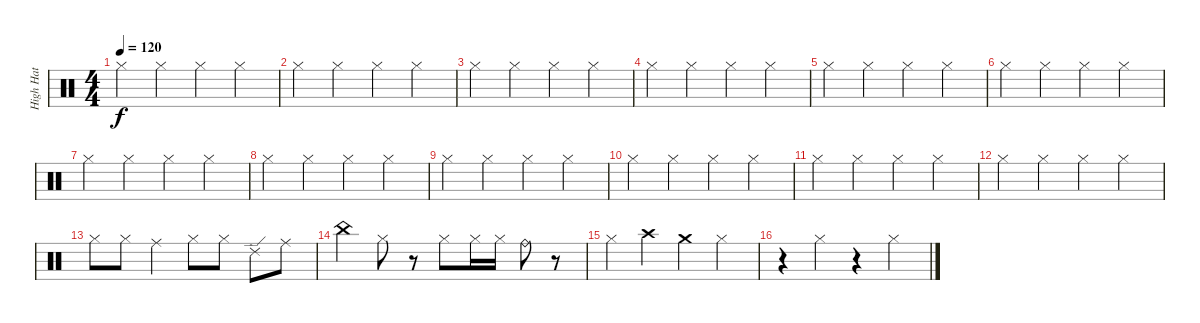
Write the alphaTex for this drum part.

\track ("High Hat" "High Hat") {instrument percussion}
\staff {score}
\articulation defaults
\ts (4 4)
\tempo 120
\clef neutral
\ks c "Hi-Hat (closed)".4{dy f} "Hi-Hat (closed)".4 "Hi-Hat (closed)".4 "Hi-Hat (closed)".4
|
"Hi-Hat (closed)".4 "Hi-Hat (closed)".4 "Hi-Hat (closed)".4 "Hi-Hat (closed)".4 |
"Hi-Hat (closed)".4 "Hi-Hat (closed)".4 "Hi-Hat (closed)".4 "Hi-Hat (closed)".4 |
"Hi-Hat (closed)".4 "Hi-Hat (closed)".4 "Hi-Hat (closed)".4 "Hi-Hat (closed)".4 |
"Hi-Hat (closed)".4 "Hi-Hat (closed)".4 "Hi-Hat (closed)".4 "Hi-Hat (closed)".4 |
"Hi-Hat (closed)".4 "Hi-Hat (closed)".4 "Hi-Hat (closed)".4 "Hi-Hat (closed)".4 |
"Hi-Hat (closed)".4 "Hi-Hat (closed)".4 "Hi-Hat (closed)".4 "Hi-Hat (closed)".4 |
"Hi-Hat (closed)".4 "Hi-Hat (closed)".4 "Hi-Hat (closed)".4 "Hi-Hat (closed)".4 |
"Hi-Hat (closed)".4 "Hi-Hat (closed)".4 "Hi-Hat (closed)".4 "Hi-Hat (closed)".4 |
"Hi-Hat (closed)".4 "Hi-Hat (closed)".4 "Hi-Hat (closed)".4 "Hi-Hat (closed)".4 |
"Hi-Hat (closed)".4 "Hi-Hat (closed)".4 "Hi-Hat (closed)".4 "Hi-Hat (closed)".4 |
"Hi-Hat (closed)".4 "Hi-Hat (closed)".4 "Hi-Hat (closed)".4 "Hi-Hat (closed)".4 |
"Hi-Hat (closed)".8 "Hi-Hat (closed)".8 "Ride (middle)".4 "Hi-Hat (closed)".8 "Hi-Hat (closed)".8 "Ride (edge) 2".8 "Ride (middle)".8 |
"China (hit)".4 "Hi-Hat (closed)".8 r.8 "Hi-Hat (closed)".8 "Hi-Hat (closed)".16 "Hi-Hat (closed)".16 "Ride (bell)".8 r.8 |
"Hi-Hat (closed)".4 "Crash high (hit)".4 "Crash medium (hit)".4 "Hi-Hat (closed)".4 |
r.4 "Hi-Hat (closed)".4 r.4 "Hi-Hat (closed)".4
